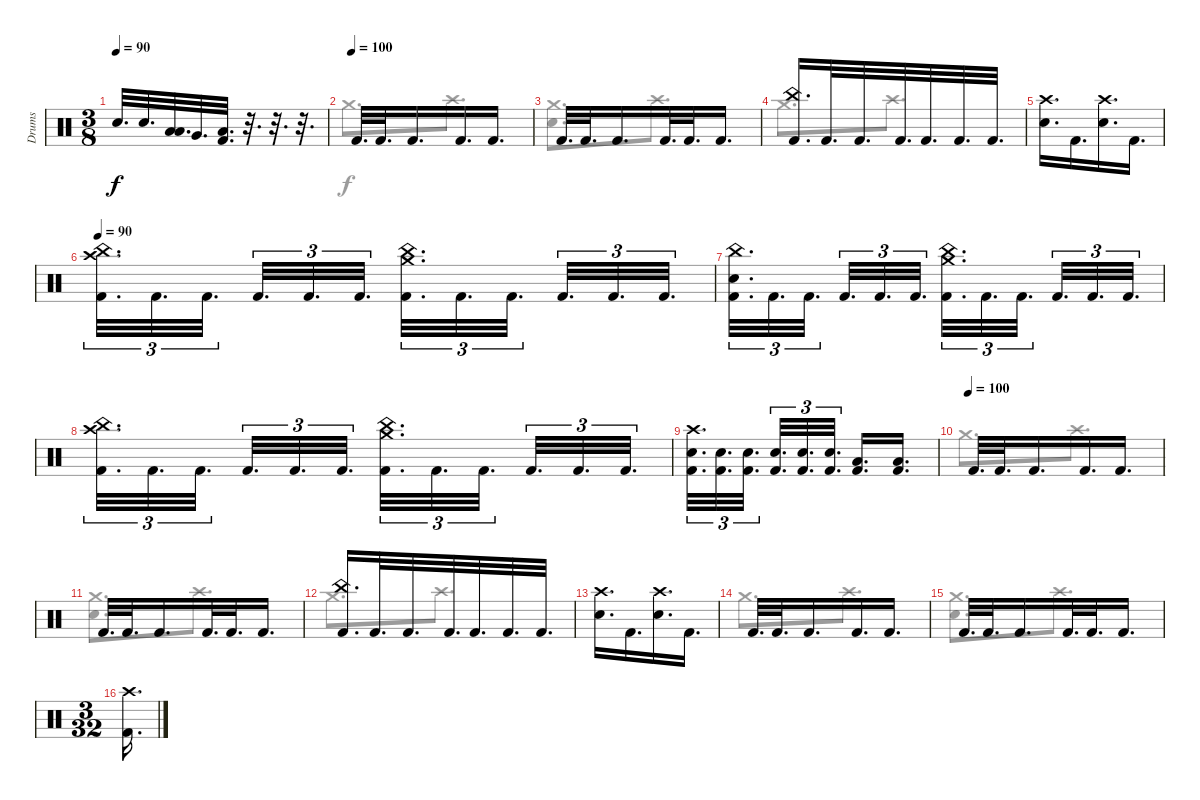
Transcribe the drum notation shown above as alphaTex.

\track ("Drums" "Drums") {instrument percussion}
\staff {score}
\articulation defaults
\voice
\ts (3 8)
\tempo 90
\clef neutral
\ks c "Electric Snare (hit)".32{d dy f} "Electric Snare (hit)".32{d}
("Low Tom (hit)" "Low Tom (hit)").32{d} "Very Low Tom (hit)".32{d} ("Low Floor Tom (hit)" "Kick (hit) 2").32{d} r.32{d} r.32{d} r.32{d} |
\tempo (100)
"Kick (hit) 2".32{d} "Kick (hit) 2".32{d} "Kick (hit) 2".16{d} "Kick (hit) 2".16{d} "Kick (hit) 2".16{d} |
"Kick (hit) 2".32{d} "Kick (hit) 2".32{d} "Kick (hit) 2".16{d} "Kick (hit) 2".32{d} "Kick (hit) 2".32{d} "Kick (hit) 2".16{d} |
("China (hit)" "Kick (hit) 2").16{d} "Kick (hit) 2".32{d} "Kick (hit) 2".32{d} "Kick (hit) 2".32{d} "Kick (hit) 2".32{d} "Kick (hit) 2".32{d} "Kick (hit) 2".32{d} |
("Crash high (hit)" "Electric Snare (hit)").16{d} "Kick (hit) 2".16{d} ("Crash high (hit)" "Electric Snare (hit)").16{d} "Kick (hit) 2".16{d} |
\tempo 90
("China (hit)" "Crash high (hit)" "Kick (hit) 2").32{d tu (3 2)} "Kick (hit) 2".32{d tu (3 2)} "Kick (hit) 2".32{d tu (3 2)} "Kick (hit) 2".32{d tu (3 2)} "Kick (hit) 2".32{d tu (3 2)} "Kick (hit) 2".32{d tu (3 2)} ("China (hit)" "Crash medium (hit)" "Kick (hit) 2").32{d tu (3 2)} "Kick (hit) 2".32{d tu (3 2)} "Kick (hit) 2".32{d tu (3 2)} "Kick (hit) 2".32{d tu (3 2)} "Kick (hit) 2".32{d tu (3 2)} "Kick (hit) 2".32{d tu (3 2)} |
("China (hit)" "Electric Snare (hit)" "Kick (hit) 2").32{d tu (3 2)} "Kick (hit) 2".32{d tu (3 2)} "Kick (hit) 2".32{d tu (3 2)} "Kick (hit) 2".32{d tu (3 2)} "Kick (hit) 2".32{d tu (3 2)} "Kick (hit) 2".32{d tu (3 2)} ("China (hit)" "Crash medium (hit)" "Kick (hit) 2").32{d tu (3 2)} "Kick (hit) 2".32{d tu (3 2)} "Kick (hit) 2".32{d tu (3 2)} "Kick (hit) 2".32{d tu (3 2)} "Kick (hit) 2".32{d tu (3 2)} "Kick (hit) 2".32{d tu (3 2)} |
("China (hit)" "Crash high (hit)" "Kick (hit) 2").32{d tu (3 2)} "Kick (hit) 2".32{d tu (3 2)} "Kick (hit) 2".32{d tu (3 2)} "Kick (hit) 2".32{d tu (3 2)} "Kick (hit) 2".32{d tu (3 2)} "Kick (hit) 2".32{d tu (3 2)} ("China (hit)" "Crash medium (hit)" "Kick (hit) 2").32{d tu (3 2)} "Kick (hit) 2".32{d tu (3 2)} "Kick (hit) 2".32{d tu (3 2)} "Kick (hit) 2".32{d tu (3 2)} "Kick (hit) 2".32{d tu (3 2)} "Kick (hit) 2".32{d tu (3 2)} |
("Crash high (hit)" "Electric Snare (hit)" "Kick (hit) 2").32{d tu (3 2)} ("Electric Snare (hit)" "Kick (hit) 2").32{d tu (3 2)} ("Electric Snare (hit)" "Kick (hit) 2").32{d tu (3 2)} ("Electric Snare (hit)" "Kick (hit) 2").32{d tu (3 2)} ("Electric Snare (hit)" "Kick (hit) 2").32{d tu (3 2)} ("Electric Snare (hit)" "Kick (hit) 2").32{d tu (3 2) beam splitsecondary} ("Low Floor Tom (hit)" "Kick (hit) 2").16{d} ("Low Floor Tom (hit)" "Kick (hit) 2").16{d} |
\tempo (100)
"Kick (hit) 2".32{d} "Kick (hit) 2".32{d} "Kick (hit) 2".16{d} "Kick (hit) 2".16{d} "Kick (hit) 2".16{d} |
"Kick (hit) 2".32{d} "Kick (hit) 2".32{d} "Kick (hit) 2".16{d} "Kick (hit) 2".32{d} "Kick (hit) 2".32{d} "Kick (hit) 2".16{d} |
("China (hit)" "Kick (hit) 2").16{d} "Kick (hit) 2".32{d} "Kick (hit) 2".32{d} "Kick (hit) 2".32{d} "Kick (hit) 2".32{d} "Kick (hit) 2".32{d} "Kick (hit) 2".32{d} |
("Crash high (hit)" "Electric Snare (hit)").16{d} "Kick (hit) 2".16{d} ("Crash high (hit)" "Electric Snare (hit)").16{d} "Kick (hit) 2".16{d} |
"Kick (hit) 2".32{d} "Kick (hit) 2".32{d} "Kick (hit) 2".16{d} "Kick (hit) 2".16{d} "Kick (hit) 2".16{d} |
"Kick (hit) 2".32{d} "Kick (hit) 2".32{d} "Kick (hit) 2".16{d} "Kick (hit) 2".32{d} "Kick (hit) 2".32{d} "Kick (hit) 2".16{d} |
\ts (3 32)
("Crash high (hit)" "Kick (hit) 2").16{d}
\voice
\clef neutral
\ottava regular
\simile none
\ks c
|
"Crash medium (hit)".8{d} "Crash high (hit)".8{d} |
("Crash medium (hit)" "Electric Snare (hit)").8{d} "Crash high (hit)".8{d} |
"Crash medium (hit)".8{d} "Crash high (hit)".8{d} |
|
|
|
|
|
"Crash medium (hit)".8{d} "Crash high (hit)".8{d} |
("Crash medium (hit)" "Electric Snare (hit)").8{d} "Crash high (hit)".8{d} |
"Crash medium (hit)".8{d} "Crash high (hit)".8{d} |
|
"Crash medium (hit)".8{d} "Crash high (hit)".8{d} |
("Crash medium (hit)" "Electric Snare (hit)").8{d} "Crash high (hit)".8{d} |
